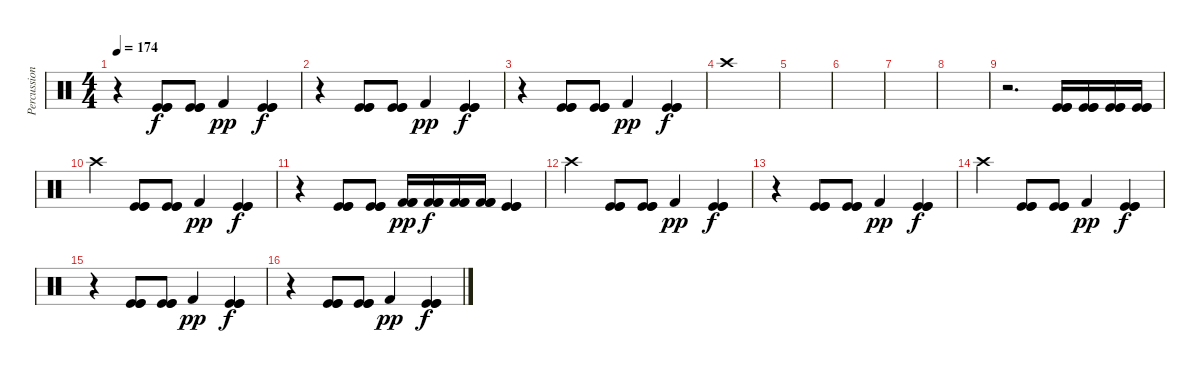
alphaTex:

\track ("Percussions" "Percussion") {instrument percussion}
\staff {score}
\articulation defaults
\ts (4 4)
\tempo 174
\clef neutral
\ks c
r.4{dy f} ("Kick (hit)" "Kick (hit)" "Kick (hit)").8 ("Kick (hit)" "Kick (hit)" "Kick (hit)").8 "Kick (hit) 2".4{dy pp} ("Kick (hit)" "Kick (hit)" "Kick (hit)").4{dy f} |
r.4 ("Kick (hit)" "Kick (hit)" "Kick (hit)").8 ("Kick (hit)" "Kick (hit)" "Kick (hit)").8 "Kick (hit) 2".4{dy pp} ("Kick (hit)" "Kick (hit)" "Kick (hit)").4{dy f} |
r.4 ("Kick (hit)" "Kick (hit)" "Kick (hit)").8 ("Kick (hit)" "Kick (hit)" "Kick (hit)").8 "Kick (hit) 2".4{dy pp} ("Kick (hit)" "Kick (hit)" "Kick (hit)").4{dy f} |
"Crash high (hit)".1 |
|
|
|
|
r.2{d} ("Kick (hit)" "Kick (hit)" "Kick (hit)").16 ("Kick (hit)" "Kick (hit)" "Kick (hit)").16 ("Kick (hit)" "Kick (hit)" "Kick (hit)").16 ("Kick (hit)" "Kick (hit)" "Kick (hit)").16 |
"Crash high (hit)".4 ("Kick (hit)" "Kick (hit)" "Kick (hit)").8 ("Kick (hit)" "Kick (hit)" "Kick (hit)").8 "Kick (hit) 2".4{dy pp} ("Kick (hit)" "Kick (hit)" "Kick (hit)").4{dy f} |
r.4 ("Kick (hit)" "Kick (hit)" "Kick (hit)").8 ("Kick (hit)" "Kick (hit)" "Kick (hit)").8 ("Kick (hit) 2" "Kick (hit) 2" "Kick (hit) 2").16{dy pp} ("Kick (hit) 2" "Kick (hit) 2" "Kick (hit) 2").16{dy f} ("Kick (hit) 2" "Kick (hit) 2" "Kick (hit) 2").16 ("Kick (hit) 2" "Kick (hit) 2" "Kick (hit) 2").16 ("Kick (hit)" "Kick (hit)" "Kick (hit)").4 |
"Crash high (hit)".4 ("Kick (hit)" "Kick (hit)" "Kick (hit)").8 ("Kick (hit)" "Kick (hit)" "Kick (hit)").8 "Kick (hit) 2".4{dy pp} ("Kick (hit)" "Kick (hit)" "Kick (hit)").4{dy f} |
r.4 ("Kick (hit)" "Kick (hit)" "Kick (hit)").8 ("Kick (hit)" "Kick (hit)" "Kick (hit)").8 "Kick (hit) 2".4{dy pp} ("Kick (hit)" "Kick (hit)" "Kick (hit)").4{dy f} |
"Crash high (hit)".4 ("Kick (hit)" "Kick (hit)" "Kick (hit)").8 ("Kick (hit)" "Kick (hit)" "Kick (hit)").8 "Kick (hit) 2".4{dy pp} ("Kick (hit)" "Kick (hit)" "Kick (hit)").4{dy f} |
r.4 ("Kick (hit)" "Kick (hit)" "Kick (hit)").8 ("Kick (hit)" "Kick (hit)" "Kick (hit)").8 "Kick (hit) 2".4{dy pp} ("Kick (hit)" "Kick (hit)" "Kick (hit)").4{dy f} |
r.4 ("Kick (hit)" "Kick (hit)" "Kick (hit)").8 ("Kick (hit)" "Kick (hit)" "Kick (hit)").8 "Kick (hit) 2".4{dy pp} ("Kick (hit)" "Kick (hit)" "Kick (hit)").4{dy f}
